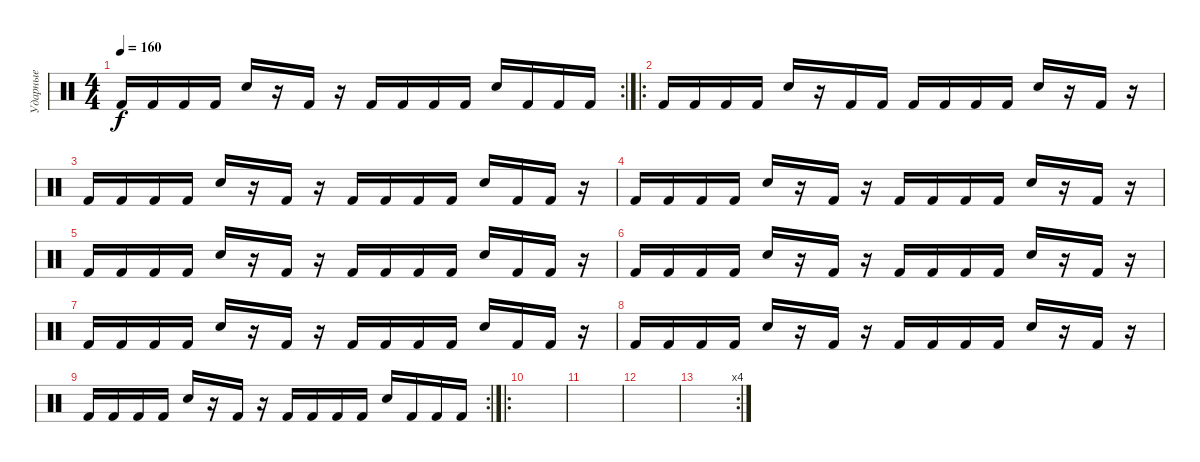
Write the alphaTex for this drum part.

\track ("Ударные" "Ударные") {instrument percussion}
\staff {score}
\articulation defaults
\rc 2
\ts (4 4)
\tempo 160
\clef neutral
\ks c "Kick (hit) 2".16{dy f} "Kick (hit) 2".16 "Kick (hit) 2".16 "Kick (hit) 2".16 "Electric Snare (hit)".16
r.16 "Kick (hit) 2".16 r.16 "Kick (hit) 2".16 "Kick (hit) 2".16 "Kick (hit) 2".16 "Kick (hit) 2".16 "Electric Snare (hit)".16 "Kick (hit) 2".16 "Kick (hit) 2".16 "Kick (hit) 2".16 |
\ro "Kick (hit) 2".16 "Kick (hit) 2".16 "Kick (hit) 2".16 "Kick (hit) 2".16 "Electric Snare (hit)".16
r.16 "Kick (hit) 2".16 "Kick (hit) 2".16 "Kick (hit) 2".16 "Kick (hit) 2".16 "Kick (hit) 2".16 "Kick (hit) 2".16 "Electric Snare (hit)".16 r.16 "Kick (hit) 2".16 r.16 |
"Kick (hit) 2".16 "Kick (hit) 2".16 "Kick (hit) 2".16 "Kick (hit) 2".16 "Electric Snare (hit)".16 r.16 "Kick (hit) 2".16 r.16 "Kick (hit) 2".16 "Kick (hit) 2".16 "Kick (hit) 2".16 "Kick (hit) 2".16 "Electric Snare (hit)".16 "Kick (hit) 2".16 "Kick (hit) 2".16 r.16 |
"Kick (hit) 2".16 "Kick (hit) 2".16 "Kick (hit) 2".16 "Kick (hit) 2".16 "Electric Snare (hit)".16 r.16 "Kick (hit) 2".16 r.16 "Kick (hit) 2".16 "Kick (hit) 2".16 "Kick (hit) 2".16 "Kick (hit) 2".16 "Electric Snare (hit)".16 r.16 "Kick (hit) 2".16 r.16 |
"Kick (hit) 2".16 "Kick (hit) 2".16 "Kick (hit) 2".16 "Kick (hit) 2".16 "Electric Snare (hit)".16 r.16 "Kick (hit) 2".16 r.16 "Kick (hit) 2".16 "Kick (hit) 2".16 "Kick (hit) 2".16 "Kick (hit) 2".16 "Electric Snare (hit)".16 "Kick (hit) 2".16 "Kick (hit) 2".16 r.16 |
"Kick (hit) 2".16 "Kick (hit) 2".16 "Kick (hit) 2".16 "Kick (hit) 2".16 "Electric Snare (hit)".16 r.16 "Kick (hit) 2".16 r.16 "Kick (hit) 2".16 "Kick (hit) 2".16 "Kick (hit) 2".16 "Kick (hit) 2".16 "Electric Snare (hit)".16 r.16 "Kick (hit) 2".16 r.16 |
"Kick (hit) 2".16 "Kick (hit) 2".16 "Kick (hit) 2".16 "Kick (hit) 2".16 "Electric Snare (hit)".16 r.16 "Kick (hit) 2".16 r.16 "Kick (hit) 2".16 "Kick (hit) 2".16 "Kick (hit) 2".16 "Kick (hit) 2".16 "Electric Snare (hit)".16 "Kick (hit) 2".16 "Kick (hit) 2".16 r.16 |
"Kick (hit) 2".16 "Kick (hit) 2".16 "Kick (hit) 2".16 "Kick (hit) 2".16 "Electric Snare (hit)".16 r.16 "Kick (hit) 2".16 r.16 "Kick (hit) 2".16 "Kick (hit) 2".16 "Kick (hit) 2".16 "Kick (hit) 2".16 "Electric Snare (hit)".16 r.16 "Kick (hit) 2".16 r.16 |
\rc 2 "Kick (hit) 2".16 "Kick (hit) 2".16 "Kick (hit) 2".16 "Kick (hit) 2".16 "Electric Snare (hit)".16
r.16 "Kick (hit) 2".16 r.16 "Kick (hit) 2".16 "Kick (hit) 2".16 "Kick (hit) 2".16 "Kick (hit) 2".16 "Electric Snare (hit)".16 "Kick (hit) 2".16 "Kick (hit) 2".16 "Kick (hit) 2".16 |
\ro
|
|
|
\rc 4
